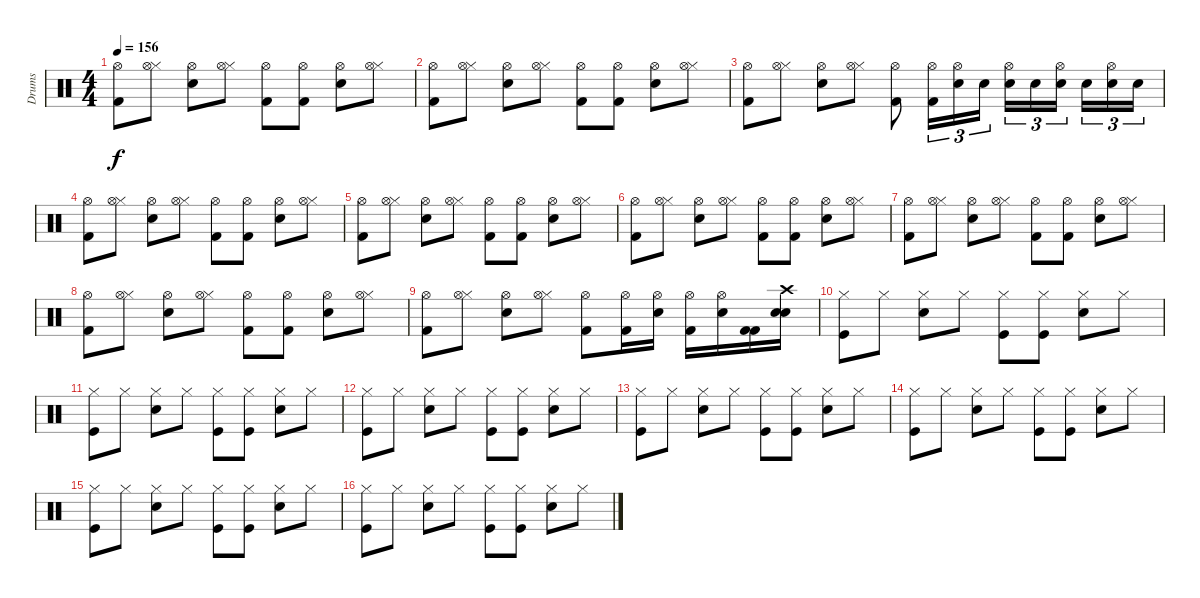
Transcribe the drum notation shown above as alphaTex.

\track ("Drums" "Drums") {instrument percussion}
\staff {score}
\articulation defaults
\ts (4 4)
\tempo 156
\clef neutral
\ks c
("Kick (hit) 2" "Hi-Hat (open)").8{dy f} ("Hi-Hat (closed)" "Hi-Hat (open)").8 ("Electric Snare (hit)" "Hi-Hat (open)").8 ("Hi-Hat (closed)" "Hi-Hat (open)").8 ("Kick (hit) 2" "Hi-Hat (open)").8 ("Kick (hit) 2" "Hi-Hat (open)").8 ("Electric Snare (hit)" "Hi-Hat (open)").8 ("Hi-Hat (closed)" "Hi-Hat (open)").8 |
("Kick (hit) 2" "Hi-Hat (open)").8 ("Hi-Hat (closed)" "Hi-Hat (open)").8 ("Electric Snare (hit)" "Hi-Hat (open)").8 ("Hi-Hat (closed)" "Hi-Hat (open)").8 ("Kick (hit) 2" "Hi-Hat (open)").8 ("Kick (hit) 2" "Hi-Hat (open)").8 ("Electric Snare (hit)" "Hi-Hat (open)").8 ("Hi-Hat (closed)" "Hi-Hat (open)").8 |
("Kick (hit) 2" "Hi-Hat (open)").8 ("Hi-Hat (closed)" "Hi-Hat (open)").8 ("Electric Snare (hit)" "Hi-Hat (open)").8 ("Hi-Hat (closed)" "Hi-Hat (open)").8 ("Kick (hit) 2" "Hi-Hat (open)").8 ("Kick (hit) 2" "Hi-Hat (open)").16{tu (3 2)} ("Electric Snare (hit)" "Hi-Hat (open)").16{tu (3 2)} "Electric Snare (hit)".16{tu (3 2)} ("Electric Snare (hit)" "Hi-Hat (open)").16{tu (3 2)} "Electric Snare (hit)".16{tu (3 2)} ("Electric Snare (hit)" "Hi-Hat (open)").16{tu (3 2)} "Electric Snare (hit)".16{tu (3 2)} ("Electric Snare (hit)" "Hi-Hat (open)").16{tu (3 2)} "Electric Snare (hit)".16{tu (3 2)} |
("Kick (hit) 2" "Hi-Hat (open)").8 ("Hi-Hat (closed)" "Hi-Hat (open)").8 ("Electric Snare (hit)" "Hi-Hat (open)").8 ("Hi-Hat (closed)" "Hi-Hat (open)").8 ("Kick (hit) 2" "Hi-Hat (open)").8 ("Kick (hit) 2" "Hi-Hat (open)").8 ("Electric Snare (hit)" "Hi-Hat (open)").8 ("Hi-Hat (closed)" "Hi-Hat (open)").8 |
("Kick (hit) 2" "Hi-Hat (open)").8 ("Hi-Hat (closed)" "Hi-Hat (open)").8 ("Electric Snare (hit)" "Hi-Hat (open)").8 ("Hi-Hat (closed)" "Hi-Hat (open)").8 ("Kick (hit) 2" "Hi-Hat (open)").8 ("Kick (hit) 2" "Hi-Hat (open)").8 ("Electric Snare (hit)" "Hi-Hat (open)").8 ("Hi-Hat (closed)" "Hi-Hat (open)").8 |
("Kick (hit) 2" "Hi-Hat (open)").8 ("Hi-Hat (closed)" "Hi-Hat (open)").8 ("Electric Snare (hit)" "Hi-Hat (open)").8 ("Hi-Hat (closed)" "Hi-Hat (open)").8 ("Kick (hit) 2" "Hi-Hat (open)").8 ("Kick (hit) 2" "Hi-Hat (open)").8 ("Electric Snare (hit)" "Hi-Hat (open)").8 ("Hi-Hat (closed)" "Hi-Hat (open)").8 |
("Kick (hit) 2" "Hi-Hat (open)").8 ("Hi-Hat (closed)" "Hi-Hat (open)").8 ("Electric Snare (hit)" "Hi-Hat (open)").8 ("Hi-Hat (closed)" "Hi-Hat (open)").8 ("Kick (hit) 2" "Hi-Hat (open)").8 ("Kick (hit) 2" "Hi-Hat (open)").8 ("Electric Snare (hit)" "Hi-Hat (open)").8 ("Hi-Hat (closed)" "Hi-Hat (open)").8 |
("Kick (hit) 2" "Hi-Hat (open)").8 ("Hi-Hat (closed)" "Hi-Hat (open)").8 ("Electric Snare (hit)" "Hi-Hat (open)").8 ("Hi-Hat (closed)" "Hi-Hat (open)").8 ("Kick (hit) 2" "Hi-Hat (open)").8 ("Kick (hit) 2" "Hi-Hat (open)").8 ("Electric Snare (hit)" "Hi-Hat (open)").8 ("Hi-Hat (closed)" "Hi-Hat (open)").8 |
("Kick (hit) 2" "Hi-Hat (open)").8 ("Hi-Hat (closed)" "Hi-Hat (open)").8 ("Electric Snare (hit)" "Hi-Hat (open)").8 ("Hi-Hat (closed)" "Hi-Hat (open)").8 ("Kick (hit) 2" "Hi-Hat (open)").8 ("Kick (hit) 2" "Hi-Hat (open)").16 ("Electric Snare (hit)" "Hi-Hat (open)").16 ("Kick (hit) 2" "Hi-Hat (open)").16 ("Electric Snare (hit)" "Hi-Hat (open)").16 ("Kick (hit) 2" "Kick (hit) 2").16 ("Electric Snare (hit)" "Electric Snare (hit)" "Crash high (hit)").16 |
("Kick (hit)" "Hi-Hat (closed)").8 "Hi-Hat (closed)".8 ("Snare (hit) 2" "Hi-Hat (closed)").8 "Hi-Hat (closed)".8 ("Kick (hit)" "Hi-Hat (closed)").8 ("Kick (hit)" "Hi-Hat (closed)").8 ("Snare (hit) 2" "Hi-Hat (closed)").8 "Hi-Hat (closed)".8 |
("Kick (hit)" "Hi-Hat (closed)").8 "Hi-Hat (closed)".8 ("Snare (hit) 2" "Hi-Hat (closed)").8 "Hi-Hat (closed)".8 ("Kick (hit)" "Hi-Hat (closed)").8 ("Kick (hit)" "Hi-Hat (closed)").8 ("Snare (hit) 2" "Hi-Hat (closed)").8 "Hi-Hat (closed)".8 |
("Kick (hit)" "Hi-Hat (closed)").8 "Hi-Hat (closed)".8 ("Snare (hit) 2" "Hi-Hat (closed)").8 "Hi-Hat (closed)".8 ("Kick (hit)" "Hi-Hat (closed)").8 ("Kick (hit)" "Hi-Hat (closed)").8 ("Snare (hit) 2" "Hi-Hat (closed)").8 "Hi-Hat (closed)".8 |
("Kick (hit)" "Hi-Hat (closed)").8 "Hi-Hat (closed)".8 ("Snare (hit) 2" "Hi-Hat (closed)").8 "Hi-Hat (closed)".8 ("Kick (hit)" "Hi-Hat (closed)").8 ("Kick (hit)" "Hi-Hat (closed)").8 ("Snare (hit) 2" "Hi-Hat (closed)").8 "Hi-Hat (closed)".8 |
("Kick (hit)" "Hi-Hat (closed)").8 "Hi-Hat (closed)".8 ("Snare (hit) 2" "Hi-Hat (closed)").8 "Hi-Hat (closed)".8 ("Kick (hit)" "Hi-Hat (closed)").8 ("Kick (hit)" "Hi-Hat (closed)").8 ("Snare (hit) 2" "Hi-Hat (closed)").8 "Hi-Hat (closed)".8 |
("Kick (hit)" "Hi-Hat (closed)").8 "Hi-Hat (closed)".8 ("Snare (hit) 2" "Hi-Hat (closed)").8 "Hi-Hat (closed)".8 ("Kick (hit)" "Hi-Hat (closed)").8 ("Kick (hit)" "Hi-Hat (closed)").8 ("Snare (hit) 2" "Hi-Hat (closed)").8 "Hi-Hat (closed)".8 |
("Kick (hit)" "Hi-Hat (closed)").8 "Hi-Hat (closed)".8 ("Snare (hit) 2" "Hi-Hat (closed)").8 "Hi-Hat (closed)".8 ("Kick (hit)" "Hi-Hat (closed)").8 ("Kick (hit)" "Hi-Hat (closed)").8 ("Snare (hit) 2" "Hi-Hat (closed)").8 "Hi-Hat (closed)".8
